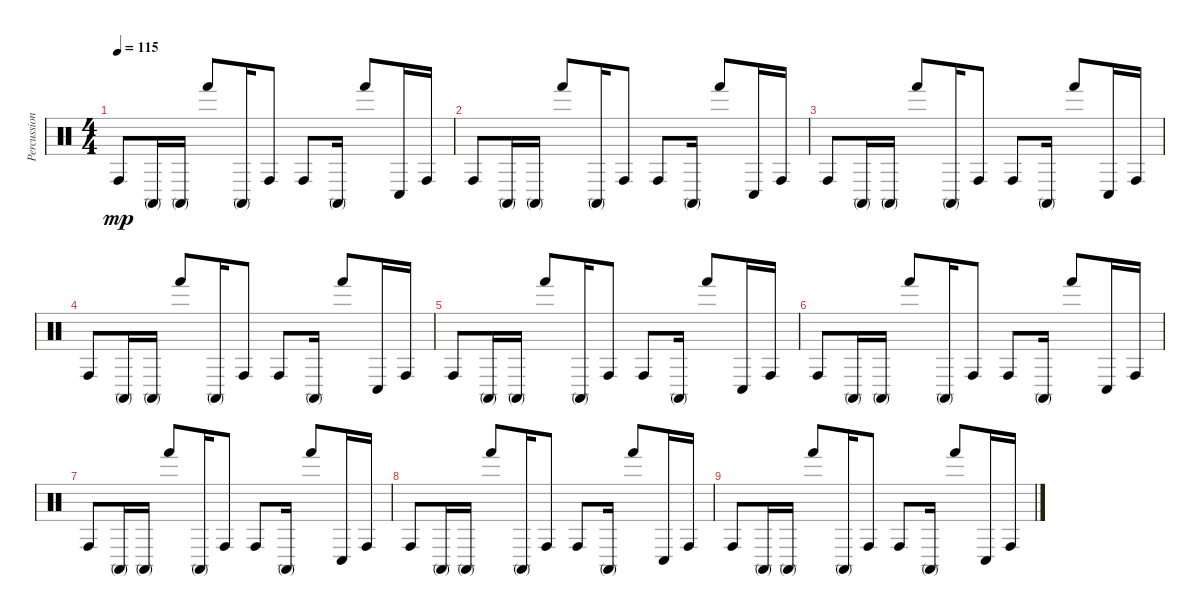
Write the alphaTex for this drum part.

\track ("Percussion" "Percussion") {instrument percussion}
\staff {score}
\articulation defaults
\ts (4 4)
\tempo 115
\clef neutral
\ks c "Conga high (hit)".8{dy mp} "Conga high (mute)".16 "Conga high (mute)".16 "Hand (hit)".8 "Conga high (mute)".16 "Conga high (hit)".8 "Conga high (hit)".8 "Conga high (mute)".16 "Hand (hit)".8 "Conga low (hit)".16 "Conga high (hit)".16
|
"Conga high (hit)".8 "Conga high (mute)".16 "Conga high (mute)".16 "Hand (hit)".8 "Conga high (mute)".16 "Conga high (hit)".8 "Conga high (hit)".8 "Conga high (mute)".16 "Hand (hit)".8 "Conga low (hit)".16 "Conga high (hit)".16 |
"Conga high (hit)".8 "Conga high (mute)".16 "Conga high (mute)".16 "Hand (hit)".8 "Conga high (mute)".16 "Conga high (hit)".8 "Conga high (hit)".8 "Conga high (mute)".16 "Hand (hit)".8 "Conga low (hit)".16 "Conga high (hit)".16 |
"Conga high (hit)".8 "Conga high (mute)".16 "Conga high (mute)".16 "Hand (hit)".8 "Conga high (mute)".16 "Conga high (hit)".8 "Conga high (hit)".8 "Conga high (mute)".16 "Hand (hit)".8 "Conga low (hit)".16 "Conga high (hit)".16 |
"Conga high (hit)".8 "Conga high (mute)".16 "Conga high (mute)".16 "Hand (hit)".8 "Conga high (mute)".16 "Conga high (hit)".8 "Conga high (hit)".8 "Conga high (mute)".16 "Hand (hit)".8 "Conga low (hit)".16 "Conga high (hit)".16 |
"Conga high (hit)".8 "Conga high (mute)".16 "Conga high (mute)".16 "Hand (hit)".8 "Conga high (mute)".16 "Conga high (hit)".8 "Conga high (hit)".8 "Conga high (mute)".16 "Hand (hit)".8 "Conga low (hit)".16 "Conga high (hit)".16 |
"Conga high (hit)".8 "Conga high (mute)".16 "Conga high (mute)".16 "Hand (hit)".8 "Conga high (mute)".16 "Conga high (hit)".8 "Conga high (hit)".8 "Conga high (mute)".16 "Hand (hit)".8 "Conga low (hit)".16 "Conga high (hit)".16 |
"Conga high (hit)".8 "Conga high (mute)".16 "Conga high (mute)".16 "Hand (hit)".8 "Conga high (mute)".16 "Conga high (hit)".8 "Conga high (hit)".8 "Conga high (mute)".16 "Hand (hit)".8 "Conga low (hit)".16 "Conga high (hit)".16 |
"Conga high (hit)".8 "Conga high (mute)".16 "Conga high (mute)".16 "Hand (hit)".8 "Conga high (mute)".16 "Conga high (hit)".8 "Conga high (hit)".8 "Conga high (mute)".16 "Hand (hit)".8 "Conga low (hit)".16 "Conga high (hit)".16
